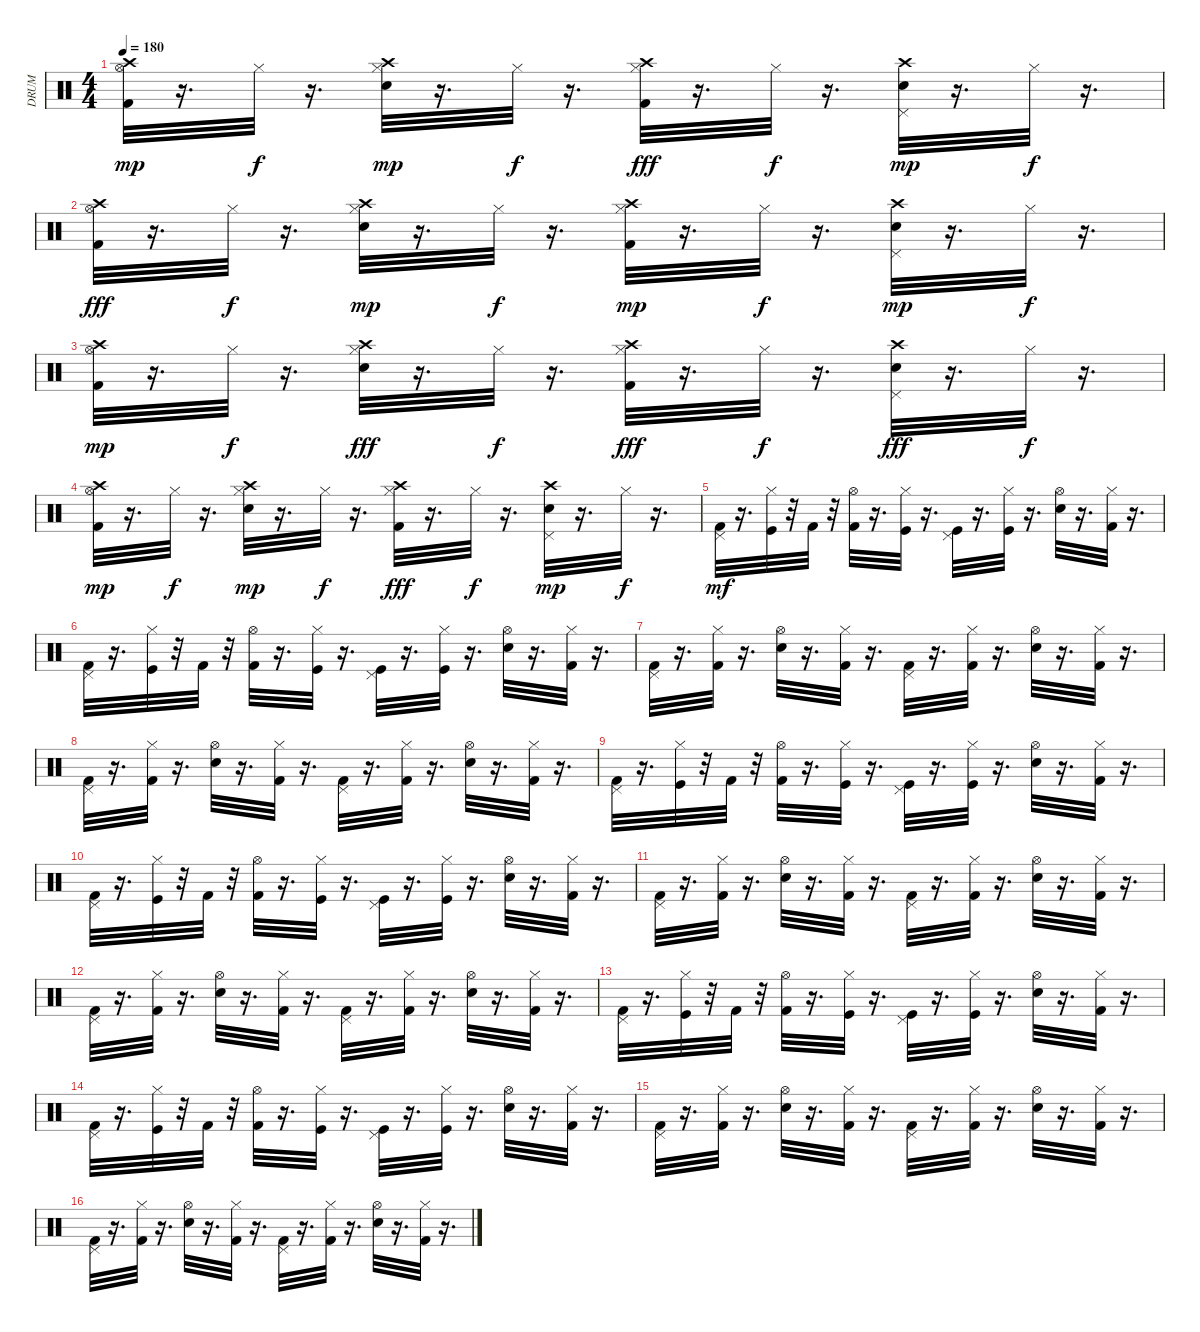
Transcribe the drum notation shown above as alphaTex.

\track ("DRUM" "DRUM") {instrument percussion}
\staff {score}
\articulation defaults
\ts (4 4)
\tempo 180
\clef neutral
\ks c
("Kick (hit) 2" "Hi-Hat (open)" "Crash high (hit)").32{dy mp} r.16{d} "Hi-Hat (closed)".32{dy f} r.16{d} ("Hi-Hat (closed)" "Snare (hit) 2" "Crash high (hit)").32{dy mp} r.16{d} "Hi-Hat (closed)".32{dy f} r.16{d} ("Crash high (hit)" "Hi-Hat (closed)" "Kick (hit) 2").32{dy fff} r.16{d} "Hi-Hat (closed)".32{dy f} r.16{d} ("Pedal Hi-Hat (hit)" "Crash high (hit)" "Snare (hit) 2").32{dy mp} r.16{d} "Hi-Hat (closed)".32{dy f} r.16{d} |
("Crash high (hit)" "Hi-Hat (open)" "Kick (hit) 2").32{dy fff} r.16{d} "Hi-Hat (closed)".32{dy f} r.16{d} ("Hi-Hat (closed)" "Crash high (hit)" "Snare (hit) 2").32{dy mp} r.16{d} "Hi-Hat (closed)".32{dy f} r.16{d} ("Hi-Hat (closed)" "Crash high (hit)" "Kick (hit) 2").32{dy mp} r.16{d} "Hi-Hat (closed)".32{dy f} r.16{d} ("Pedal Hi-Hat (hit)" "Snare (hit) 2" "Crash high (hit)").32{dy mp} r.16{d} "Hi-Hat (closed)".32{dy f} r.16{d} |
("Kick (hit) 2" "Hi-Hat (open)" "Crash high (hit)").32{dy mp} r.16{d} "Hi-Hat (closed)".32{dy f} r.16{d} ("Snare (hit) 2" "Crash high (hit)" "Hi-Hat (closed)").32{dy fff} r.16{d} "Hi-Hat (closed)".32{dy f} r.16{d} ("Crash high (hit)" "Hi-Hat (closed)" "Kick (hit) 2").32{dy fff} r.16{d} "Hi-Hat (closed)".32{dy f} r.16{d} ("Snare (hit) 2" "Crash high (hit)" "Pedal Hi-Hat (hit)").32{dy fff} r.16{d} "Hi-Hat (closed)".32{dy f} r.16{d} |
("Kick (hit) 2" "Hi-Hat (open)" "Crash high (hit)").32{dy mp} r.16{d} "Hi-Hat (closed)".32{dy f} r.16{d} ("Hi-Hat (closed)" "Crash high (hit)" "Snare (hit) 2").32{dy mp} r.16{d} "Hi-Hat (closed)".32{dy f} r.16{d} ("Kick (hit) 2" "Crash high (hit)" "Hi-Hat (closed)").32{dy fff} r.16{d} "Hi-Hat (closed)".32{dy f} r.16{d} ("Pedal Hi-Hat (hit)" "Crash high (hit)" "Snare (hit) 2").32{dy mp} r.16{d} "Hi-Hat (closed)".32{dy f} r.16{d} |
("Kick (hit) 2" "Pedal Hi-Hat (hit)").32{dy mf} r.16{d} ("Hi-Hat (closed)" "Kick (hit)").32 r.32 "Kick (hit) 2".32 r.32 ("Kick (hit) 2" "Hi-Hat (open)").32 r.16{d} ("Kick (hit)" "Hi-Hat (closed)").32 r.16{d} ("Pedal Hi-Hat (hit)" "Kick (hit)").32 r.16{d} ("Hi-Hat (closed)" "Kick (hit)").32 r.16{d} ("Hi-Hat (open)" "Snare (hit) 2").32 r.16{d} ("Kick (hit) 2" "Hi-Hat (closed)").32 r.16{d} |
("Kick (hit) 2" "Pedal Hi-Hat (hit)").32 r.16{d} ("Hi-Hat (closed)" "Kick (hit)").32 r.32 "Kick (hit) 2".32 r.32 ("Kick (hit) 2" "Hi-Hat (open)").32 r.16{d} ("Hi-Hat (closed)" "Kick (hit)").32 r.16{d} ("Kick (hit)" "Pedal Hi-Hat (hit)").32 r.16{d} ("Kick (hit)" "Hi-Hat (closed)").32 r.16{d} ("Hi-Hat (open)" "Snare (hit) 2").32 r.16{d} ("Kick (hit) 2" "Hi-Hat (closed)").32 r.16{d} |
("Kick (hit) 2" "Pedal Hi-Hat (hit)").32 r.16{d} ("Hi-Hat (closed)" "Kick (hit) 2").32 r.16{d} ("Snare (hit) 2" "Hi-Hat (open)").32 r.16{d} ("Kick (hit) 2" "Hi-Hat (closed)").32 r.16{d} ("Kick (hit) 2" "Pedal Hi-Hat (hit)").32 r.16{d} ("Hi-Hat (closed)" "Kick (hit) 2").32 r.16{d} ("Snare (hit) 2" "Hi-Hat (open)").32 r.16{d} ("Hi-Hat (closed)" "Kick (hit) 2").32 r.16{d} |
("Pedal Hi-Hat (hit)" "Kick (hit) 2").32 r.16{d} ("Hi-Hat (closed)" "Kick (hit) 2").32 r.16{d} ("Hi-Hat (open)" "Snare (hit) 2").32 r.16{d} ("Hi-Hat (closed)" "Kick (hit) 2").32 r.16{d} ("Kick (hit) 2" "Pedal Hi-Hat (hit)").32 r.16{d} ("Hi-Hat (closed)" "Kick (hit) 2").32 r.16{d} ("Hi-Hat (open)" "Snare (hit) 2").32 r.16{d} ("Kick (hit) 2" "Hi-Hat (closed)").32 r.16{d} |
("Kick (hit) 2" "Pedal Hi-Hat (hit)").32 r.16{d} ("Hi-Hat (closed)" "Kick (hit)").32 r.32 "Kick (hit) 2".32 r.32 ("Kick (hit) 2" "Hi-Hat (open)").32 r.16{d} ("Kick (hit)" "Hi-Hat (closed)").32 r.16{d} ("Pedal Hi-Hat (hit)" "Kick (hit)").32 r.16{d} ("Hi-Hat (closed)" "Kick (hit)").32 r.16{d} ("Hi-Hat (open)" "Snare (hit) 2").32 r.16{d} ("Kick (hit) 2" "Hi-Hat (closed)").32 r.16{d} |
("Kick (hit) 2" "Pedal Hi-Hat (hit)").32 r.16{d} ("Hi-Hat (closed)" "Kick (hit)").32 r.32 "Kick (hit) 2".32 r.32 ("Kick (hit) 2" "Hi-Hat (open)").32 r.16{d} ("Hi-Hat (closed)" "Kick (hit)").32 r.16{d} ("Kick (hit)" "Pedal Hi-Hat (hit)").32 r.16{d} ("Kick (hit)" "Hi-Hat (closed)").32 r.16{d} ("Hi-Hat (open)" "Snare (hit) 2").32 r.16{d} ("Kick (hit) 2" "Hi-Hat (closed)").32 r.16{d} |
("Kick (hit) 2" "Pedal Hi-Hat (hit)").32 r.16{d} ("Hi-Hat (closed)" "Kick (hit) 2").32 r.16{d} ("Snare (hit) 2" "Hi-Hat (open)").32 r.16{d} ("Kick (hit) 2" "Hi-Hat (closed)").32 r.16{d} ("Kick (hit) 2" "Pedal Hi-Hat (hit)").32 r.16{d} ("Hi-Hat (closed)" "Kick (hit) 2").32 r.16{d} ("Snare (hit) 2" "Hi-Hat (open)").32 r.16{d} ("Hi-Hat (closed)" "Kick (hit) 2").32 r.16{d} |
("Pedal Hi-Hat (hit)" "Kick (hit) 2").32 r.16{d} ("Hi-Hat (closed)" "Kick (hit) 2").32 r.16{d} ("Hi-Hat (open)" "Snare (hit) 2").32 r.16{d} ("Hi-Hat (closed)" "Kick (hit) 2").32 r.16{d} ("Kick (hit) 2" "Pedal Hi-Hat (hit)").32 r.16{d} ("Hi-Hat (closed)" "Kick (hit) 2").32 r.16{d} ("Hi-Hat (open)" "Snare (hit) 2").32 r.16{d} ("Kick (hit) 2" "Hi-Hat (closed)").32 r.16{d} |
("Kick (hit) 2" "Pedal Hi-Hat (hit)").32 r.16{d} ("Hi-Hat (closed)" "Kick (hit)").32 r.32 "Kick (hit) 2".32 r.32 ("Kick (hit) 2" "Hi-Hat (open)").32 r.16{d} ("Kick (hit)" "Hi-Hat (closed)").32 r.16{d} ("Pedal Hi-Hat (hit)" "Kick (hit)").32 r.16{d} ("Hi-Hat (closed)" "Kick (hit)").32 r.16{d} ("Hi-Hat (open)" "Snare (hit) 2").32 r.16{d} ("Kick (hit) 2" "Hi-Hat (closed)").32 r.16{d} |
("Kick (hit) 2" "Pedal Hi-Hat (hit)").32 r.16{d} ("Hi-Hat (closed)" "Kick (hit)").32 r.32 "Kick (hit) 2".32 r.32 ("Kick (hit) 2" "Hi-Hat (open)").32 r.16{d} ("Hi-Hat (closed)" "Kick (hit)").32 r.16{d} ("Kick (hit)" "Pedal Hi-Hat (hit)").32 r.16{d} ("Kick (hit)" "Hi-Hat (closed)").32 r.16{d} ("Hi-Hat (open)" "Snare (hit) 2").32 r.16{d} ("Kick (hit) 2" "Hi-Hat (closed)").32 r.16{d} |
("Kick (hit) 2" "Pedal Hi-Hat (hit)").32 r.16{d} ("Hi-Hat (closed)" "Kick (hit) 2").32 r.16{d} ("Snare (hit) 2" "Hi-Hat (open)").32 r.16{d} ("Kick (hit) 2" "Hi-Hat (closed)").32 r.16{d} ("Kick (hit) 2" "Pedal Hi-Hat (hit)").32 r.16{d} ("Hi-Hat (closed)" "Kick (hit) 2").32 r.16{d} ("Snare (hit) 2" "Hi-Hat (open)").32 r.16{d} ("Hi-Hat (closed)" "Kick (hit) 2").32 r.16{d} |
("Pedal Hi-Hat (hit)" "Kick (hit) 2").32 r.16{d} ("Hi-Hat (closed)" "Kick (hit) 2").32 r.16{d} ("Hi-Hat (open)" "Snare (hit) 2").32 r.16{d} ("Hi-Hat (closed)" "Kick (hit) 2").32 r.16{d} ("Kick (hit) 2" "Pedal Hi-Hat (hit)").32 r.16{d} ("Hi-Hat (closed)" "Kick (hit) 2").32 r.16{d} ("Hi-Hat (open)" "Snare (hit) 2").32 r.16{d} ("Kick (hit) 2" "Hi-Hat (closed)").32 r.16{d}
